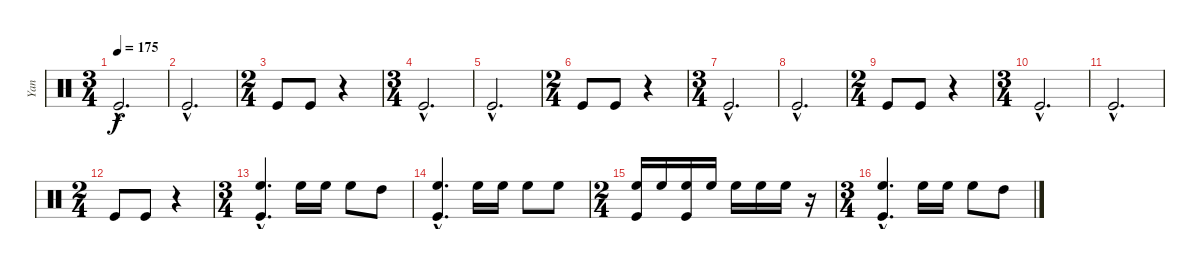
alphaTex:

\track ("Yan" "Yan") {instrument percussion}
\staff {score}
\articulation defaults
\ts (3 4)
\tempo 175
\clef neutral
\ks c "Kick (hit)"{hac}.2{d dy f}
|
"Kick (hit)"{hac}.2{d} |
\ts (2 4)
"Kick (hit)".8 "Kick (hit)".8 r.4 |
\ts (3 4)
"Kick (hit)"{hac}.2{d} |
"Kick (hit)"{hac}.2{d} |
\ts (2 4)
"Kick (hit)".8 "Kick (hit)".8 r.4 |
\ts (3 4)
"Kick (hit)"{hac}.2{d} |
"Kick (hit)"{hac}.2{d} |
\ts (2 4)
"Kick (hit)".8 "Kick (hit)".8 r.4 |
\ts (3 4)
"Kick (hit)"{hac}.2{d} |
"Kick (hit)"{hac}.2{d} |
\ts (2 4)
"Kick (hit)".8 "Kick (hit)".8 r.4 |
\ts (3 4)
("High Floor Tom (hit)"{hac} "Kick (hit)"{hac}).4{d} "High Floor Tom (hit)".16 "High Floor Tom (hit)".16 "High Floor Tom (hit)".8 "High Tom (hit)".8 |
("High Floor Tom (hit)"{hac} "Kick (hit)"{hac}).4{d} "High Floor Tom (hit)".16 "High Floor Tom (hit)".16 "High Floor Tom (hit)".8 "High Floor Tom (hit)".8 |
\ts (2 4)
("High Floor Tom (hit)" "Kick (hit)").16 "High Floor Tom (hit)".16 ("High Floor Tom (hit)" "Kick (hit)").16 "High Floor Tom (hit)".16 "High Floor Tom (hit)".16 "High Floor Tom (hit)".16 "High Floor Tom (hit)".16 r.16 |
\ts (3 4)
("High Floor Tom (hit)"{hac} "Kick (hit)"{hac}).4{d} "High Floor Tom (hit)".16 "High Floor Tom (hit)".16 "High Floor Tom (hit)".8 "High Tom (hit)".8
